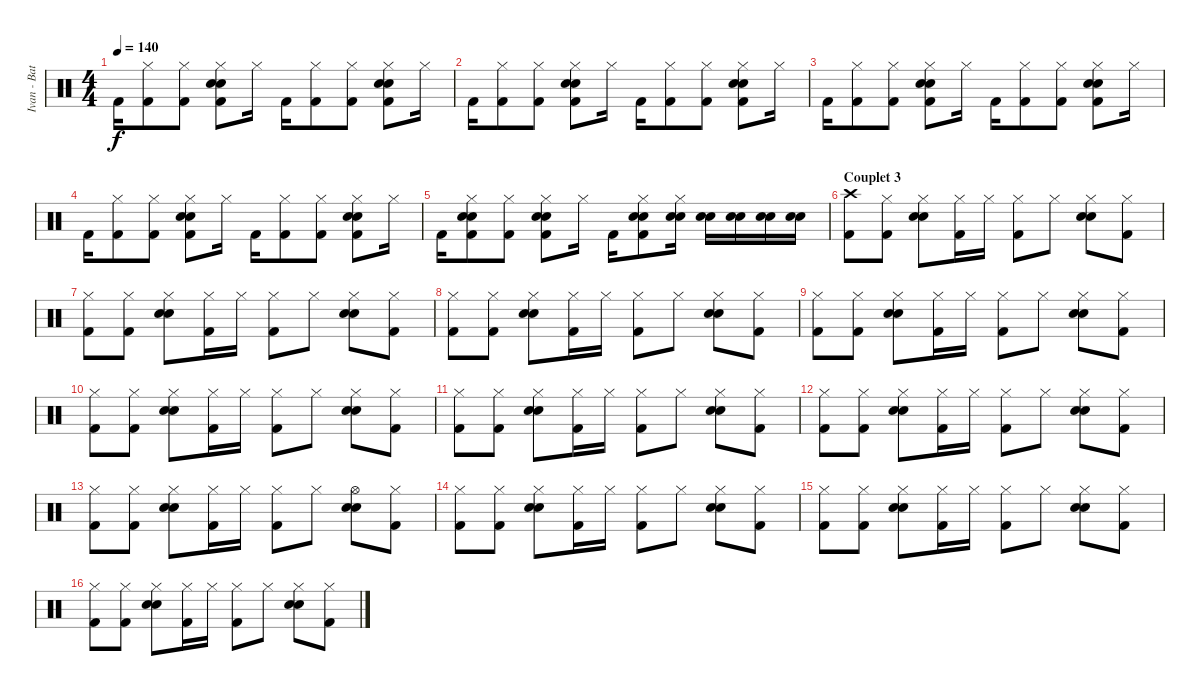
\track ("Ivan - Batterie" "Ivan - Bat") {instrument percussion}
\staff {score}
\articulation defaults
\ts (4 4)
\tempo 140
\clef neutral
\ks c "Kick (hit) 2".16{dy f}
("Hi-Hat (closed)" "Kick (hit) 2").8 ("Hi-Hat (closed)" "Kick (hit) 2").8 ("Hi-Hat (closed)" "Electric Snare (hit)" "Snare (hit) 2" "Kick (hit) 2").8 "Hi-Hat (closed)".16 "Kick (hit) 2".16 ("Hi-Hat (closed)" "Kick (hit) 2").8 ("Hi-Hat (closed)" "Kick (hit) 2").8 ("Hi-Hat (closed)" "Electric Snare (hit)" "Snare (hit) 2" "Kick (hit) 2").8 "Hi-Hat (closed)".16 |
"Kick (hit) 2".16 ("Hi-Hat (closed)" "Kick (hit) 2").8 ("Hi-Hat (closed)" "Kick (hit) 2").8 ("Hi-Hat (closed)" "Electric Snare (hit)" "Snare (hit) 2" "Kick (hit) 2").8 "Hi-Hat (closed)".16 "Kick (hit) 2".16 ("Hi-Hat (closed)" "Kick (hit) 2").8 ("Hi-Hat (closed)" "Kick (hit) 2").8 ("Hi-Hat (closed)" "Electric Snare (hit)" "Snare (hit) 2" "Kick (hit) 2").8 "Hi-Hat (closed)".16 |
"Kick (hit) 2".16 ("Hi-Hat (closed)" "Kick (hit) 2").8 ("Hi-Hat (closed)" "Kick (hit) 2").8 ("Hi-Hat (closed)" "Electric Snare (hit)" "Snare (hit) 2" "Kick (hit) 2").8 "Hi-Hat (closed)".16 "Kick (hit) 2".16 ("Hi-Hat (closed)" "Kick (hit) 2").8 ("Hi-Hat (closed)" "Kick (hit) 2").8 ("Hi-Hat (closed)" "Electric Snare (hit)" "Snare (hit) 2" "Kick (hit) 2").8 "Hi-Hat (closed)".16 |
"Kick (hit) 2".16 ("Hi-Hat (closed)" "Kick (hit) 2").8 ("Hi-Hat (closed)" "Kick (hit) 2").8 ("Hi-Hat (closed)" "Electric Snare (hit)" "Snare (hit) 2" "Kick (hit) 2").8 "Hi-Hat (closed)".16 "Kick (hit) 2".16 ("Hi-Hat (closed)" "Kick (hit) 2").8 ("Hi-Hat (closed)" "Kick (hit) 2").8 ("Hi-Hat (closed)" "Electric Snare (hit)" "Snare (hit) 2" "Kick (hit) 2").8 "Hi-Hat (closed)".16 |
"Kick (hit) 2".16 ("Hi-Hat (closed)" "Electric Snare (hit)" "Snare (hit) 2" "Kick (hit) 2").8 ("Hi-Hat (closed)" "Kick (hit) 2").8 ("Hi-Hat (closed)" "Electric Snare (hit)" "Snare (hit) 2" "Kick (hit) 2").8 "Hi-Hat (closed)".16 "Kick (hit) 2".16 ("Hi-Hat (closed)" "Electric Snare (hit)" "Snare (hit) 2" "Kick (hit) 2").8 ("Hi-Hat (closed)" "Electric Snare (hit)" "Snare (hit) 2").16 ("Electric Snare (hit)" "Snare (hit) 2").16 ("Electric Snare (hit)" "Snare (hit) 2").16 ("Electric Snare (hit)" "Snare (hit) 2").16 ("Electric Snare (hit)" "Snare (hit) 2").16 |
\section ("" "Couplet 3")
("Crash high (hit)" "Kick (hit) 2").8 ("Hi-Hat (closed)" "Kick (hit) 2").8 ("Hi-Hat (closed)" "Electric Snare (hit)" "Snare (hit) 2").8 ("Hi-Hat (closed)" "Kick (hit) 2").16 "Hi-Hat (closed)".16 ("Hi-Hat (closed)" "Kick (hit) 2").8 "Hi-Hat (closed)".8 ("Hi-Hat (closed)" "Electric Snare (hit)" "Snare (hit) 2").8 ("Hi-Hat (closed)" "Kick (hit) 2").8 |
("Hi-Hat (closed)" "Kick (hit) 2").8 ("Hi-Hat (closed)" "Kick (hit) 2").8 ("Hi-Hat (closed)" "Electric Snare (hit)" "Snare (hit) 2").8 ("Hi-Hat (closed)" "Kick (hit) 2").16 "Hi-Hat (closed)".16 ("Hi-Hat (closed)" "Kick (hit) 2").8 "Hi-Hat (closed)".8 ("Hi-Hat (closed)" "Electric Snare (hit)" "Snare (hit) 2").8 ("Hi-Hat (closed)" "Kick (hit) 2").8 |
("Hi-Hat (closed)" "Kick (hit) 2").8 ("Hi-Hat (closed)" "Kick (hit) 2").8 ("Hi-Hat (closed)" "Electric Snare (hit)" "Snare (hit) 2").8 ("Hi-Hat (closed)" "Kick (hit) 2").16 "Hi-Hat (closed)".16 ("Hi-Hat (closed)" "Kick (hit) 2").8 "Hi-Hat (closed)".8 ("Hi-Hat (closed)" "Electric Snare (hit)" "Snare (hit) 2").8 ("Hi-Hat (closed)" "Kick (hit) 2").8 |
("Hi-Hat (closed)" "Kick (hit) 2").8 ("Hi-Hat (closed)" "Kick (hit) 2").8 ("Hi-Hat (closed)" "Electric Snare (hit)" "Snare (hit) 2").8 ("Hi-Hat (closed)" "Kick (hit) 2").16 "Hi-Hat (closed)".16 ("Hi-Hat (closed)" "Kick (hit) 2").8 "Hi-Hat (closed)".8 ("Hi-Hat (closed)" "Electric Snare (hit)" "Snare (hit) 2").8 ("Hi-Hat (closed)" "Kick (hit) 2").8 |
("Hi-Hat (closed)" "Kick (hit) 2").8 ("Hi-Hat (closed)" "Kick (hit) 2").8 ("Hi-Hat (closed)" "Electric Snare (hit)" "Snare (hit) 2").8 ("Hi-Hat (closed)" "Kick (hit) 2").16 "Hi-Hat (closed)".16 ("Hi-Hat (closed)" "Kick (hit) 2").8 "Hi-Hat (closed)".8 ("Hi-Hat (closed)" "Electric Snare (hit)" "Snare (hit) 2").8 ("Hi-Hat (closed)" "Kick (hit) 2").8 |
("Hi-Hat (closed)" "Kick (hit) 2").8 ("Hi-Hat (closed)" "Kick (hit) 2").8 ("Hi-Hat (closed)" "Electric Snare (hit)" "Snare (hit) 2").8 ("Hi-Hat (closed)" "Kick (hit) 2").16 "Hi-Hat (closed)".16 ("Hi-Hat (closed)" "Kick (hit) 2").8 "Hi-Hat (closed)".8 ("Hi-Hat (closed)" "Electric Snare (hit)" "Snare (hit) 2").8 ("Hi-Hat (closed)" "Kick (hit) 2").8 |
("Hi-Hat (closed)" "Kick (hit) 2").8 ("Hi-Hat (closed)" "Kick (hit) 2").8 ("Hi-Hat (closed)" "Electric Snare (hit)" "Snare (hit) 2").8 ("Hi-Hat (closed)" "Kick (hit) 2").16 "Hi-Hat (closed)".16 ("Hi-Hat (closed)" "Kick (hit) 2").8 "Hi-Hat (closed)".8 ("Hi-Hat (closed)" "Electric Snare (hit)" "Snare (hit) 2").8 ("Hi-Hat (closed)" "Kick (hit) 2").8 |
("Hi-Hat (closed)" "Kick (hit) 2").8 ("Hi-Hat (closed)" "Kick (hit) 2").8 ("Hi-Hat (closed)" "Electric Snare (hit)" "Snare (hit) 2").8 ("Hi-Hat (closed)" "Kick (hit) 2").16 "Hi-Hat (closed)".16 ("Hi-Hat (closed)" "Kick (hit) 2").8 "Hi-Hat (closed)".8 ("Hi-Hat (open)" "Electric Snare (hit)" "Snare (hit) 2").8 ("Hi-Hat (closed)" "Kick (hit) 2").8 |
("Hi-Hat (closed)" "Kick (hit) 2").8 ("Hi-Hat (closed)" "Kick (hit) 2").8 ("Hi-Hat (closed)" "Electric Snare (hit)" "Snare (hit) 2").8 ("Hi-Hat (closed)" "Kick (hit) 2").16 "Hi-Hat (closed)".16 ("Hi-Hat (closed)" "Kick (hit) 2").8 "Hi-Hat (closed)".8 ("Hi-Hat (closed)" "Electric Snare (hit)" "Snare (hit) 2").8 ("Hi-Hat (closed)" "Kick (hit) 2").8 |
("Hi-Hat (closed)" "Kick (hit) 2").8 ("Hi-Hat (closed)" "Kick (hit) 2").8 ("Hi-Hat (closed)" "Electric Snare (hit)" "Snare (hit) 2").8 ("Hi-Hat (closed)" "Kick (hit) 2").16 "Hi-Hat (closed)".16 ("Hi-Hat (closed)" "Kick (hit) 2").8 "Hi-Hat (closed)".8 ("Hi-Hat (closed)" "Electric Snare (hit)" "Snare (hit) 2").8 ("Hi-Hat (closed)" "Kick (hit) 2").8 |
("Hi-Hat (closed)" "Kick (hit) 2").8 ("Hi-Hat (closed)" "Kick (hit) 2").8 ("Hi-Hat (closed)" "Electric Snare (hit)" "Snare (hit) 2").8 ("Hi-Hat (closed)" "Kick (hit) 2").16 "Hi-Hat (closed)".16 ("Hi-Hat (closed)" "Kick (hit) 2").8 "Hi-Hat (closed)".8 ("Hi-Hat (closed)" "Electric Snare (hit)" "Snare (hit) 2").8 ("Hi-Hat (closed)" "Kick (hit) 2").8
